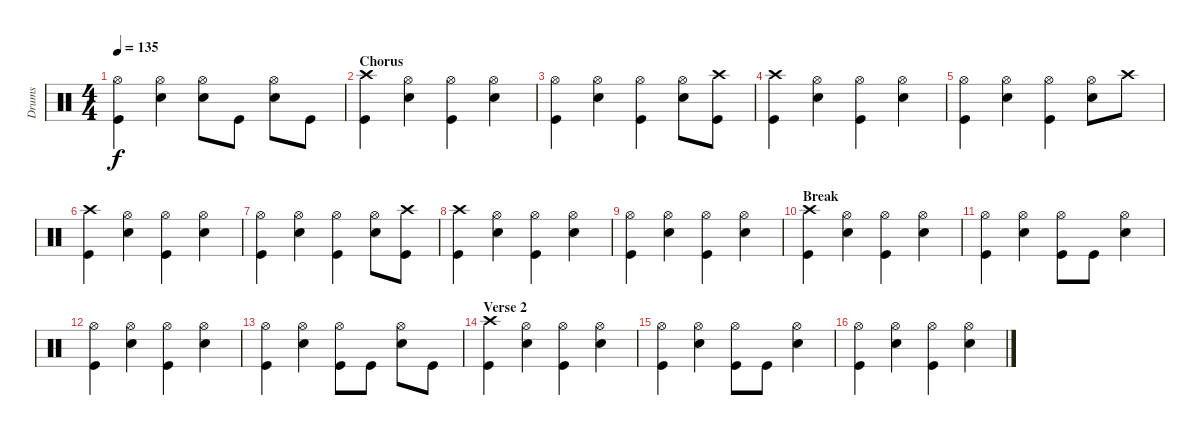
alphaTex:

\track ("Drums" "Drums") {instrument percussion}
\staff {score}
\articulation defaults
\ts (4 4)
\tempo 135
\clef neutral
\ks c
("Hi-Hat (open)" "Kick (hit)").4{dy f} ("Hi-Hat (open)" "Snare (hit) 2").4 ("Hi-Hat (open)" "Snare (hit) 2").8 "Kick (hit)".8 ("Hi-Hat (open)" "Snare (hit) 2").8 "Kick (hit)".8 |
\section ("" "Chorus")
("Crash high (hit)" "Kick (hit)").4 ("Hi-Hat (open)" "Snare (hit) 2").4 ("Hi-Hat (open)" "Kick (hit)").4 ("Hi-Hat (open)" "Snare (hit) 2").4 |
("Hi-Hat (open)" "Kick (hit)").4 ("Hi-Hat (open)" "Snare (hit) 2").4 ("Hi-Hat (open)" "Kick (hit)").4 ("Hi-Hat (open)" "Snare (hit) 2").8 ("Crash high (hit)" "Kick (hit)").8 |
("Crash high (hit)" "Kick (hit)").4 ("Hi-Hat (open)" "Snare (hit) 2").4 ("Hi-Hat (open)" "Kick (hit)").4 ("Hi-Hat (open)" "Snare (hit) 2").4 |
("Hi-Hat (open)" "Kick (hit)").4 ("Hi-Hat (open)" "Snare (hit) 2").4 ("Hi-Hat (open)" "Kick (hit)").4 ("Hi-Hat (open)" "Snare (hit) 2").8 "Crash high (hit)".8 |
("Crash high (hit)" "Kick (hit)").4 ("Hi-Hat (open)" "Snare (hit) 2").4 ("Hi-Hat (open)" "Kick (hit)").4 ("Hi-Hat (open)" "Snare (hit) 2").4 |
("Hi-Hat (open)" "Kick (hit)").4 ("Hi-Hat (open)" "Snare (hit) 2").4 ("Hi-Hat (open)" "Kick (hit)").4 ("Hi-Hat (open)" "Snare (hit) 2").8 ("Crash high (hit)" "Kick (hit)").8 |
("Crash high (hit)" "Kick (hit)").4 ("Hi-Hat (open)" "Snare (hit) 2").4 ("Hi-Hat (open)" "Kick (hit)").4 ("Hi-Hat (open)" "Snare (hit) 2").4 |
("Hi-Hat (open)" "Kick (hit)").4 ("Hi-Hat (open)" "Snare (hit) 2").4 ("Hi-Hat (open)" "Kick (hit)").4 ("Hi-Hat (open)" "Snare (hit) 2").4 |
\section ("" "Break")
("Crash high (hit)" "Kick (hit)").4 ("Hi-Hat (open)" "Snare (hit) 2").4 ("Hi-Hat (open)" "Kick (hit)").4 ("Hi-Hat (open)" "Snare (hit) 2").4 |
("Hi-Hat (open)" "Kick (hit)").4 ("Hi-Hat (open)" "Snare (hit) 2").4 ("Hi-Hat (open)" "Kick (hit)").8 "Kick (hit)".8 ("Hi-Hat (open)" "Snare (hit) 2").4 |
("Hi-Hat (open)" "Kick (hit)").4 ("Hi-Hat (open)" "Snare (hit) 2").4 ("Hi-Hat (open)" "Kick (hit)").4 ("Hi-Hat (open)" "Snare (hit) 2").4 |
("Hi-Hat (open)" "Kick (hit)").4 ("Hi-Hat (open)" "Snare (hit) 2").4 ("Hi-Hat (open)" "Kick (hit)").8 "Kick (hit)".8 ("Hi-Hat (open)" "Snare (hit) 2").8 "Kick (hit)".8 |
\section ("" "Verse 2")
("Crash high (hit)" "Kick (hit)").4 ("Hi-Hat (open)" "Snare (hit) 2").4 ("Hi-Hat (open)" "Kick (hit)").4 ("Hi-Hat (open)" "Snare (hit) 2").4 |
("Hi-Hat (open)" "Kick (hit)").4 ("Hi-Hat (open)" "Snare (hit) 2").4 ("Hi-Hat (open)" "Kick (hit)").8 "Kick (hit)".8 ("Hi-Hat (open)" "Snare (hit) 2").4 |
("Hi-Hat (open)" "Kick (hit)").4 ("Hi-Hat (open)" "Snare (hit) 2").4 ("Hi-Hat (open)" "Kick (hit)").4 ("Hi-Hat (open)" "Snare (hit) 2").4
